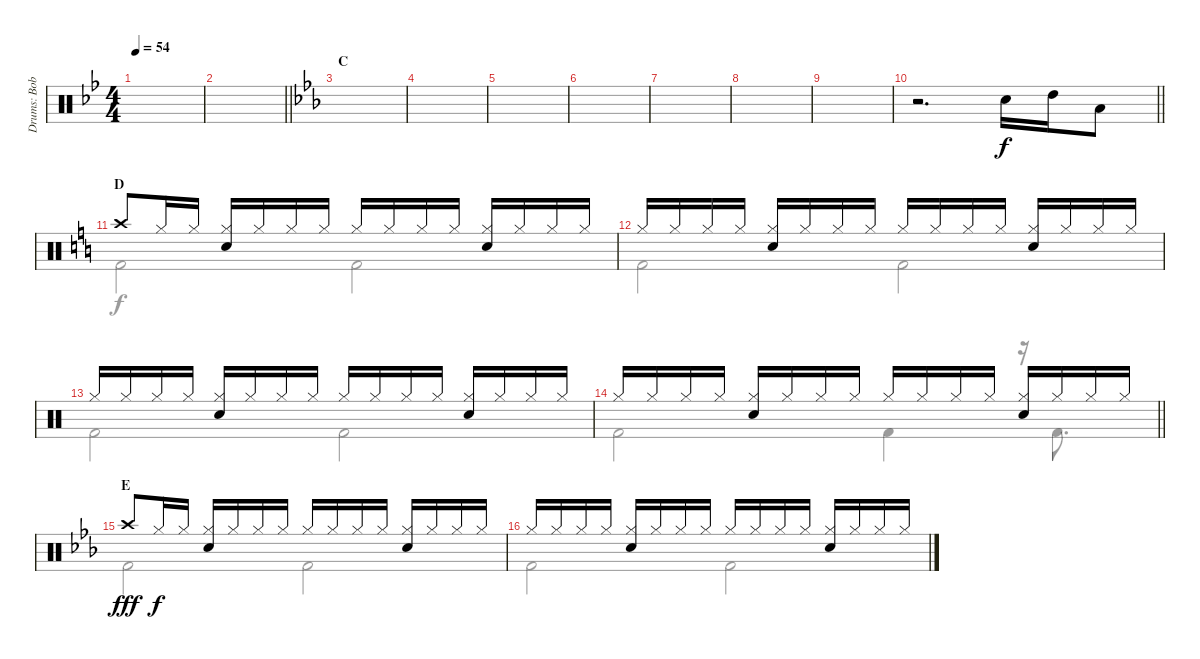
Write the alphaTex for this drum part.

\track ("Drums: Bobby" "Drums: Bob") {instrument percussion}
\staff {score}
\articulation defaults
\voice
\ts (4 4)
\tempo 54
\clef neutral
\ks bb
|
\barLineRight lightlight
|
\section ("" "C")
\ks eb
|
|
|
|
|
|
|
\barLineRight lightlight
r.2{d} "Snare (hit) 2".16 "High Tom (hit)".16 "Low Tom (hit)".8 |
\section ("" "D")
\ks c "Crash high (hit)".8 "Hi-Hat (closed)".16 "Hi-Hat (closed)".16
("Hi-Hat (closed)" "Snare (hit) 2").16 "Hi-Hat (closed)".16 "Hi-Hat (closed)".16 "Hi-Hat (closed)".16 "Hi-Hat (closed)".16 "Hi-Hat (closed)".16 "Hi-Hat (closed)".16 "Hi-Hat (closed)".16 ("Hi-Hat (closed)" "Snare (hit) 2").16 "Hi-Hat (closed)".16 "Hi-Hat (closed)".16 "Hi-Hat (closed)".16 |
"Hi-Hat (closed)".16 "Hi-Hat (closed)".16 "Hi-Hat (closed)".16 "Hi-Hat (closed)".16 ("Hi-Hat (closed)" "Snare (hit) 2").16 "Hi-Hat (closed)".16 "Hi-Hat (closed)".16 "Hi-Hat (closed)".16 "Hi-Hat (closed)".16 "Hi-Hat (closed)".16 "Hi-Hat (closed)".16 "Hi-Hat (closed)".16 ("Hi-Hat (closed)" "Snare (hit) 2").16 "Hi-Hat (closed)".16 "Hi-Hat (closed)".16 "Hi-Hat (closed)".16 |
"Hi-Hat (closed)".16 "Hi-Hat (closed)".16 "Hi-Hat (closed)".16 "Hi-Hat (closed)".16 ("Hi-Hat (closed)" "Snare (hit) 2").16 "Hi-Hat (closed)".16 "Hi-Hat (closed)".16 "Hi-Hat (closed)".16 "Hi-Hat (closed)".16 "Hi-Hat (closed)".16 "Hi-Hat (closed)".16 "Hi-Hat (closed)".16 ("Hi-Hat (closed)" "Snare (hit) 2").16 "Hi-Hat (closed)".16 "Hi-Hat (closed)".16 "Hi-Hat (closed)".16 |
\barLineRight lightlight "Hi-Hat (closed)".16 "Hi-Hat (closed)".16 "Hi-Hat (closed)".16 "Hi-Hat (closed)".16
("Hi-Hat (closed)" "Snare (hit) 2").16 "Hi-Hat (closed)".16 "Hi-Hat (closed)".16 "Hi-Hat (closed)".16 "Hi-Hat (closed)".16 "Hi-Hat (closed)".16 "Hi-Hat (closed)".16 "Hi-Hat (closed)".16 ("Hi-Hat (closed)" "Snare (hit) 2").16 "Hi-Hat (closed)".16 "Hi-Hat (closed)".16 "Hi-Hat (closed)".16 |
\section ("" "E")
\ks eb "Crash high (hit)".8{dy fff} "Hi-Hat (closed)".16{dy f} "Hi-Hat (closed)".16
("Hi-Hat (closed)" "Snare (hit) 2").16 "Hi-Hat (closed)".16 "Hi-Hat (closed)".16 "Hi-Hat (closed)".16 "Hi-Hat (closed)".16 "Hi-Hat (closed)".16 "Hi-Hat (closed)".16 "Hi-Hat (closed)".16 ("Hi-Hat (closed)" "Snare (hit) 2").16 "Hi-Hat (closed)".16 "Hi-Hat (closed)".16 "Hi-Hat (closed)".16 |
"Hi-Hat (closed)".16 "Hi-Hat (closed)".16 "Hi-Hat (closed)".16 "Hi-Hat (closed)".16 ("Hi-Hat (closed)" "Snare (hit) 2").16 "Hi-Hat (closed)".16 "Hi-Hat (closed)".16 "Hi-Hat (closed)".16 "Hi-Hat (closed)".16 "Hi-Hat (closed)".16 "Hi-Hat (closed)".16 "Hi-Hat (closed)".16 ("Hi-Hat (closed)" "Snare (hit) 2").16 "Hi-Hat (closed)".16 "Hi-Hat (closed)".16 "Hi-Hat (closed)".16
\voice
\clef neutral
\ottava regular
\simile none
\ks bb
|
\barLineRight lightlight
|
\ks eb
|
|
|
|
|
|
|
\barLineRight lightlight
|
\ks c "Kick (hit) 2".2 "Kick (hit) 2".2
|
"Kick (hit) 2".2 "Kick (hit) 2".2 |
"Kick (hit) 2".2 "Kick (hit) 2".2 |
\barLineRight lightlight "Kick (hit) 2".2 "Kick (hit) 2".4
r.16 "Kick (hit) 2".8{d} |
\ks eb "Kick (hit) 2".2{dy fff} "Kick (hit) 2".2
|
"Kick (hit) 2".2 "Kick (hit) 2".2
